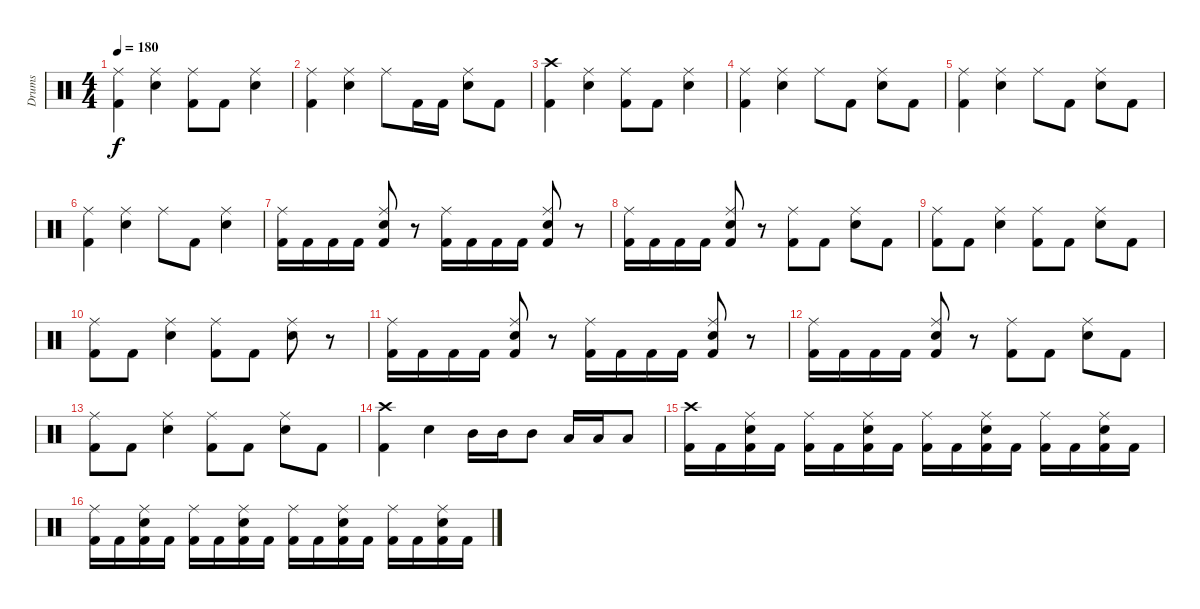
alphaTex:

\track ("Drums " "Drums ") {instrument percussion}
\staff {score}
\articulation defaults
\ts (4 4)
\tempo 180
\clef neutral
\ks c
("Kick (hit) 2" "Ride (middle)").4{dy f} ("Ride (middle)" "Electric Snare (hit)").4 ("Kick (hit) 2" "Ride (middle)").8 "Kick (hit) 2".8 ("Ride (middle)" "Electric Snare (hit)").4 |
("Kick (hit) 2" "Ride (middle)").4 ("Ride (middle)" "Electric Snare (hit)").4 "Ride (middle)".8 "Kick (hit) 2".16 "Kick (hit) 2".16 ("Ride (middle)" "Electric Snare (hit)").8 "Kick (hit) 2".8 |
("Kick (hit) 2" "Crash high (hit)").4 ("Ride (middle)" "Electric Snare (hit)").4 ("Kick (hit) 2" "Ride (middle)").8 "Kick (hit) 2".8 ("Ride (middle)" "Electric Snare (hit)").4 |
("Kick (hit) 2" "Ride (middle)").4 ("Ride (middle)" "Electric Snare (hit)").4 "Ride (middle)".8 "Kick (hit) 2".8 ("Ride (middle)" "Electric Snare (hit)").8 "Kick (hit) 2".8 |
("Kick (hit) 2" "Ride (middle)").4 ("Ride (middle)" "Electric Snare (hit)").4 "Ride (middle)".8 "Kick (hit) 2".8 ("Ride (middle)" "Electric Snare (hit)").8 "Kick (hit) 2".8 |
("Kick (hit) 2" "Ride (middle)").4 ("Ride (middle)" "Electric Snare (hit)").4 "Ride (middle)".8 "Kick (hit) 2".8 ("Ride (middle)" "Electric Snare (hit)").4 |
("Kick (hit) 2" "Ride (middle)").16 "Kick (hit) 2".16 "Kick (hit) 2".16 "Kick (hit) 2".16 ("Kick (hit) 2" "Ride (middle)" "Electric Snare (hit)").8 r.8 ("Kick (hit) 2" "Ride (middle)").16 "Kick (hit) 2".16 "Kick (hit) 2".16 "Kick (hit) 2".16 ("Kick (hit) 2" "Ride (middle)" "Electric Snare (hit)").8 r.8 |
("Kick (hit) 2" "Ride (middle)").16 "Kick (hit) 2".16 "Kick (hit) 2".16 "Kick (hit) 2".16 ("Kick (hit) 2" "Ride (middle)" "Electric Snare (hit)").8 r.8 ("Kick (hit) 2" "Ride (middle)").8 "Kick (hit) 2".8 ("Ride (middle)" "Electric Snare (hit)").8 "Kick (hit) 2".8 |
("Kick (hit) 2" "Ride (middle)").8 "Kick (hit) 2".8 ("Ride (middle)" "Electric Snare (hit)").4 ("Kick (hit) 2" "Ride (middle)").8 "Kick (hit) 2".8 ("Ride (middle)" "Electric Snare (hit)").8 "Kick (hit) 2".8 |
("Kick (hit) 2" "Ride (middle)").8 "Kick (hit) 2".8 ("Ride (middle)" "Electric Snare (hit)").4 ("Kick (hit) 2" "Ride (middle)").8 "Kick (hit) 2".8 ("Ride (middle)" "Electric Snare (hit)").8 r.8 |
("Kick (hit) 2" "Ride (middle)").16 "Kick (hit) 2".16 "Kick (hit) 2".16 "Kick (hit) 2".16 ("Kick (hit) 2" "Ride (middle)" "Electric Snare (hit)").8 r.8 ("Kick (hit) 2" "Ride (middle)").16 "Kick (hit) 2".16 "Kick (hit) 2".16 "Kick (hit) 2".16 ("Kick (hit) 2" "Ride (middle)" "Electric Snare (hit)").8 r.8 |
("Kick (hit) 2" "Ride (middle)").16 "Kick (hit) 2".16 "Kick (hit) 2".16 "Kick (hit) 2".16 ("Kick (hit) 2" "Ride (middle)" "Electric Snare (hit)").8 r.8 ("Kick (hit) 2" "Ride (middle)").8 "Kick (hit) 2".8 ("Ride (middle)" "Electric Snare (hit)").8 "Kick (hit) 2".8 |
("Kick (hit) 2" "Ride (middle)").8 "Kick (hit) 2".8 ("Ride (middle)" "Electric Snare (hit)").4 ("Kick (hit) 2" "Ride (middle)").8 "Kick (hit) 2".8 ("Ride (middle)" "Electric Snare (hit)").8 "Kick (hit) 2".8 |
("Kick (hit) 2" "Crash high (hit)").4 "Electric Snare (hit)".4 "Mid Tom (hit)".16 "Mid Tom (hit)".16 "Mid Tom (hit)".8 "Low Tom (hit)".16 "Low Tom (hit)".16 "Low Tom (hit)".8 |
("Kick (hit) 2" "Crash high (hit)").16 "Kick (hit) 2".16 ("Kick (hit) 2" "Ride (middle)" "Electric Snare (hit)").16 "Kick (hit) 2".16 ("Kick (hit) 2" "Ride (middle)").16 "Kick (hit) 2".16 ("Kick (hit) 2" "Ride (middle)" "Electric Snare (hit)").16 "Kick (hit) 2".16 ("Kick (hit) 2" "Ride (middle)").16 "Kick (hit) 2".16 ("Kick (hit) 2" "Ride (middle)" "Electric Snare (hit)").16 "Kick (hit) 2".16 ("Kick (hit) 2" "Ride (middle)").16 "Kick (hit) 2".16 ("Kick (hit) 2" "Ride (middle)" "Electric Snare (hit)").16 "Kick (hit) 2".16 |
("Kick (hit) 2" "Ride (middle)").16 "Kick (hit) 2".16 ("Kick (hit) 2" "Ride (middle)" "Electric Snare (hit)").16 "Kick (hit) 2".16 ("Kick (hit) 2" "Ride (middle)").16 "Kick (hit) 2".16 ("Kick (hit) 2" "Ride (middle)" "Electric Snare (hit)").16 "Kick (hit) 2".16 ("Kick (hit) 2" "Ride (middle)").16 "Kick (hit) 2".16 ("Kick (hit) 2" "Ride (middle)" "Electric Snare (hit)").16 "Kick (hit) 2".16 ("Kick (hit) 2" "Ride (middle)").16 "Kick (hit) 2".16 ("Kick (hit) 2" "Ride (middle)" "Electric Snare (hit)").16 "Kick (hit) 2".16
